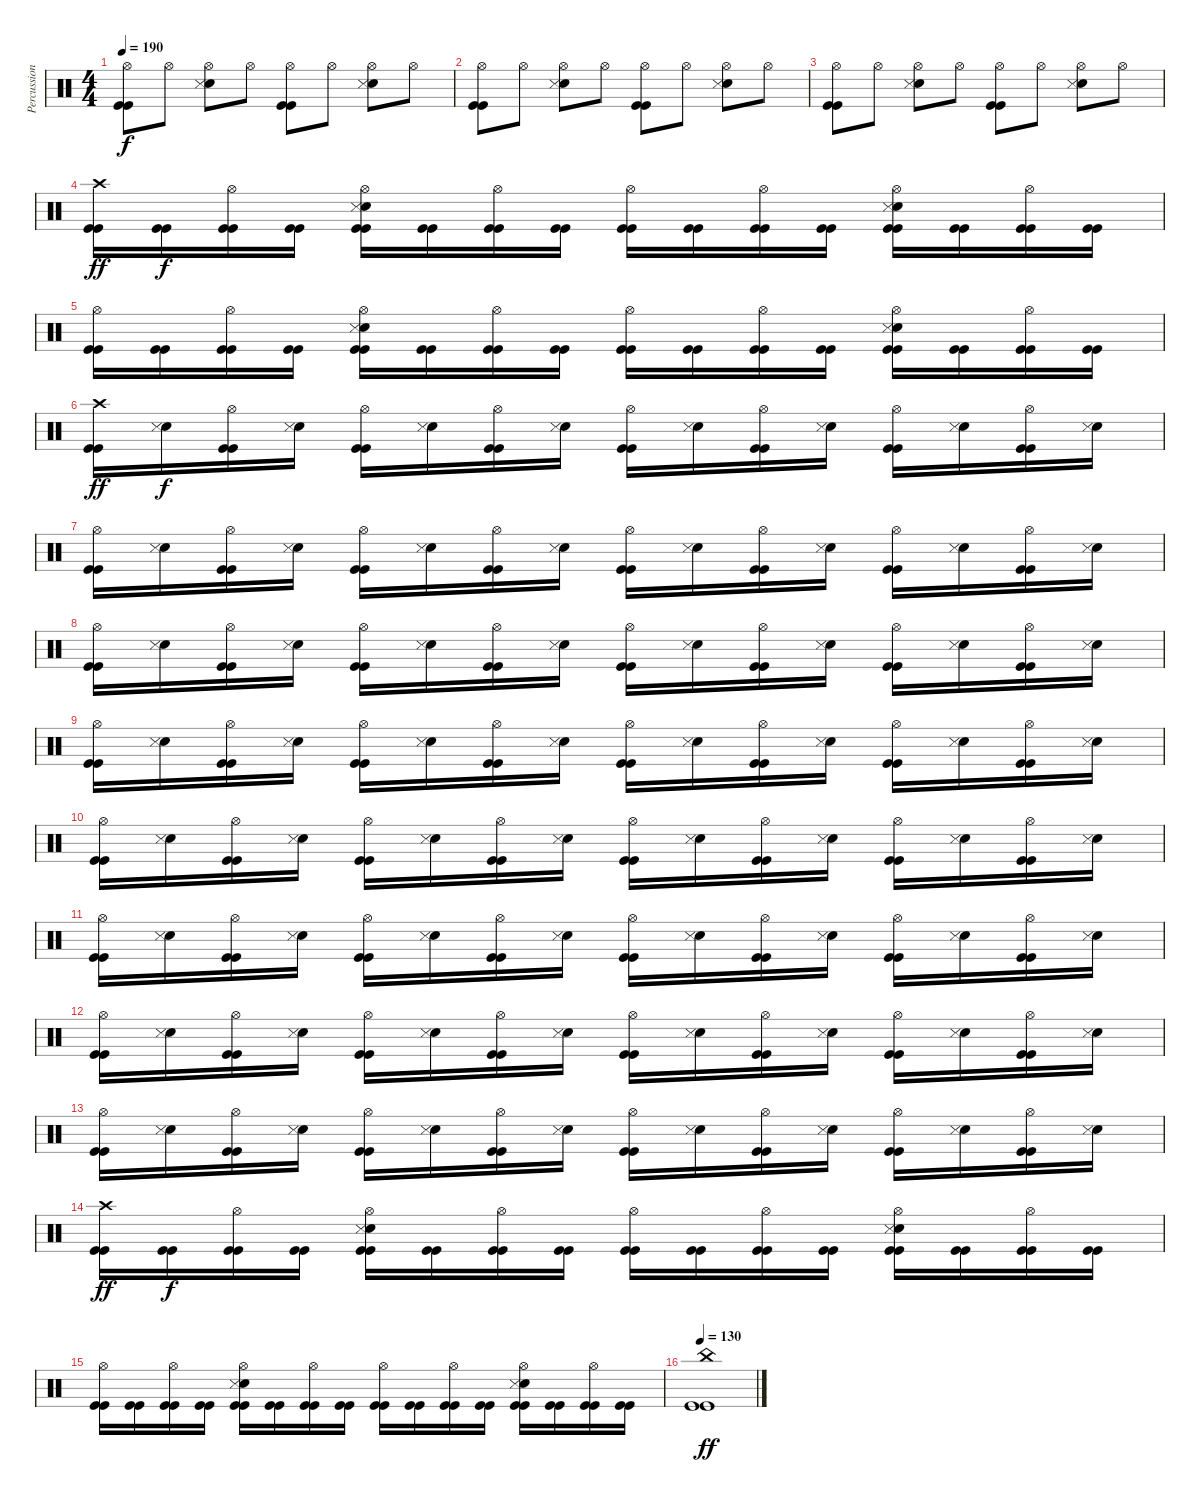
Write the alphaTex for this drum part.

\track ("Percussion" "Percussion") {instrument percussion}
\staff {score}
\articulation defaults
\ts (4 4)
\tempo 190
\clef neutral
\ks c
("Hi-Hat (open)" "Kick (hit)" "Kick (hit)").8{dy f} "Hi-Hat (open)".8 ("Hi-Hat (open)" "Snare (hit) 2" "Snare (side stick) 3").8 "Hi-Hat (open)".8 ("Hi-Hat (open)" "Kick (hit)" "Kick (hit)").8 "Hi-Hat (open)".8 ("Hi-Hat (open)" "Snare (hit) 2" "Snare (side stick) 3").8 "Hi-Hat (open)".8 |
("Hi-Hat (open)" "Kick (hit)" "Kick (hit)").8 "Hi-Hat (open)".8 ("Hi-Hat (open)" "Snare (hit) 2" "Snare (side stick) 3").8 "Hi-Hat (open)".8 ("Hi-Hat (open)" "Kick (hit)" "Kick (hit)").8 "Hi-Hat (open)".8 ("Hi-Hat (open)" "Snare (hit) 2" "Snare (side stick) 3").8 "Hi-Hat (open)".8 |
("Hi-Hat (open)" "Kick (hit)" "Kick (hit)").8 "Hi-Hat (open)".8 ("Hi-Hat (open)" "Snare (hit) 2" "Snare (side stick) 3").8 "Hi-Hat (open)".8 ("Hi-Hat (open)" "Kick (hit)" "Kick (hit)").8 "Hi-Hat (open)".8 ("Hi-Hat (open)" "Snare (hit) 2" "Snare (side stick) 3").8 "Hi-Hat (open)".8 |
("Crash high (hit)" "Kick (hit)" "Kick (hit)").16{dy ff} ("Kick (hit)" "Kick (hit)").16{dy f} ("Hi-Hat (open)" "Kick (hit)" "Kick (hit)").16 ("Kick (hit)" "Kick (hit)").16 ("Snare (hit) 2" "Snare (side stick) 3" "Hi-Hat (open)" "Kick (hit)" "Kick (hit)").16 ("Kick (hit)" "Kick (hit)").16 ("Hi-Hat (open)" "Kick (hit)" "Kick (hit)").16 ("Kick (hit)" "Kick (hit)").16 ("Hi-Hat (open)" "Kick (hit)" "Kick (hit)").16 ("Kick (hit)" "Kick (hit)").16 ("Hi-Hat (open)" "Kick (hit)" "Kick (hit)").16 ("Kick (hit)" "Kick (hit)").16 ("Snare (hit) 2" "Snare (side stick) 3" "Hi-Hat (open)" "Kick (hit)" "Kick (hit)").16 ("Kick (hit)" "Kick (hit)").16 ("Hi-Hat (open)" "Kick (hit)" "Kick (hit)").16 ("Kick (hit)" "Kick (hit)").16 |
("Hi-Hat (open)" "Kick (hit)" "Kick (hit)").16 ("Kick (hit)" "Kick (hit)").16 ("Hi-Hat (open)" "Kick (hit)" "Kick (hit)").16 ("Kick (hit)" "Kick (hit)").16 ("Snare (hit) 2" "Snare (side stick) 3" "Hi-Hat (open)" "Kick (hit)" "Kick (hit)").16 ("Kick (hit)" "Kick (hit)").16 ("Hi-Hat (open)" "Kick (hit)" "Kick (hit)").16 ("Kick (hit)" "Kick (hit)").16 ("Hi-Hat (open)" "Kick (hit)" "Kick (hit)").16 ("Kick (hit)" "Kick (hit)").16 ("Hi-Hat (open)" "Kick (hit)" "Kick (hit)").16 ("Kick (hit)" "Kick (hit)").16 ("Snare (hit) 2" "Snare (side stick) 3" "Hi-Hat (open)" "Kick (hit)" "Kick (hit)").16 ("Kick (hit)" "Kick (hit)").16 ("Hi-Hat (open)" "Kick (hit)" "Kick (hit)").16 ("Kick (hit)" "Kick (hit)").16 |
("Crash high (hit)" "Kick (hit)" "Kick (hit)").16{dy ff} ("Snare (hit) 2" "Snare (side stick) 3").16{dy f} ("Hi-Hat (open)" "Kick (hit)" "Kick (hit)").16 ("Snare (hit) 2" "Snare (side stick) 3").16 ("Hi-Hat (open)" "Kick (hit)" "Kick (hit)").16 ("Snare (hit) 2" "Snare (side stick) 3").16 ("Hi-Hat (open)" "Kick (hit)" "Kick (hit)").16 ("Snare (hit) 2" "Snare (side stick) 3").16 ("Hi-Hat (open)" "Kick (hit)" "Kick (hit)").16 ("Snare (hit) 2" "Snare (side stick) 3").16 ("Hi-Hat (open)" "Kick (hit)" "Kick (hit)").16 ("Snare (hit) 2" "Snare (side stick) 3").16 ("Hi-Hat (open)" "Kick (hit)" "Kick (hit)").16 ("Snare (hit) 2" "Snare (side stick) 3").16 ("Hi-Hat (open)" "Kick (hit)" "Kick (hit)").16 ("Snare (hit) 2" "Snare (side stick) 3").16 |
("Hi-Hat (open)" "Kick (hit)" "Kick (hit)").16 ("Snare (hit) 2" "Snare (side stick) 3").16 ("Hi-Hat (open)" "Kick (hit)" "Kick (hit)").16 ("Snare (hit) 2" "Snare (side stick) 3").16 ("Hi-Hat (open)" "Kick (hit)" "Kick (hit)").16 ("Snare (hit) 2" "Snare (side stick) 3").16 ("Hi-Hat (open)" "Kick (hit)" "Kick (hit)").16 ("Snare (hit) 2" "Snare (side stick) 3").16 ("Hi-Hat (open)" "Kick (hit)" "Kick (hit)").16 ("Snare (hit) 2" "Snare (side stick) 3").16 ("Hi-Hat (open)" "Kick (hit)" "Kick (hit)").16 ("Snare (hit) 2" "Snare (side stick) 3").16 ("Hi-Hat (open)" "Kick (hit)" "Kick (hit)").16 ("Snare (hit) 2" "Snare (side stick) 3").16 ("Hi-Hat (open)" "Kick (hit)" "Kick (hit)").16 ("Snare (hit) 2" "Snare (side stick) 3").16 |
("Hi-Hat (open)" "Kick (hit)" "Kick (hit)").16 ("Snare (hit) 2" "Snare (side stick) 3").16 ("Hi-Hat (open)" "Kick (hit)" "Kick (hit)").16 ("Snare (hit) 2" "Snare (side stick) 3").16 ("Hi-Hat (open)" "Kick (hit)" "Kick (hit)").16 ("Snare (hit) 2" "Snare (side stick) 3").16 ("Hi-Hat (open)" "Kick (hit)" "Kick (hit)").16 ("Snare (hit) 2" "Snare (side stick) 3").16 ("Hi-Hat (open)" "Kick (hit)" "Kick (hit)").16 ("Snare (hit) 2" "Snare (side stick) 3").16 ("Hi-Hat (open)" "Kick (hit)" "Kick (hit)").16 ("Snare (hit) 2" "Snare (side stick) 3").16 ("Hi-Hat (open)" "Kick (hit)" "Kick (hit)").16 ("Snare (hit) 2" "Snare (side stick) 3").16 ("Hi-Hat (open)" "Kick (hit)" "Kick (hit)").16 ("Snare (hit) 2" "Snare (side stick) 3").16 |
("Hi-Hat (open)" "Kick (hit)" "Kick (hit)").16 ("Snare (hit) 2" "Snare (side stick) 3").16 ("Hi-Hat (open)" "Kick (hit)" "Kick (hit)").16 ("Snare (hit) 2" "Snare (side stick) 3").16 ("Hi-Hat (open)" "Kick (hit)" "Kick (hit)").16 ("Snare (hit) 2" "Snare (side stick) 3").16 ("Hi-Hat (open)" "Kick (hit)" "Kick (hit)").16 ("Snare (hit) 2" "Snare (side stick) 3").16 ("Hi-Hat (open)" "Kick (hit)" "Kick (hit)").16 ("Snare (hit) 2" "Snare (side stick) 3").16 ("Hi-Hat (open)" "Kick (hit)" "Kick (hit)").16 ("Snare (hit) 2" "Snare (side stick) 3").16 ("Hi-Hat (open)" "Kick (hit)" "Kick (hit)").16 ("Snare (hit) 2" "Snare (side stick) 3").16 ("Hi-Hat (open)" "Kick (hit)" "Kick (hit)").16 ("Snare (hit) 2" "Snare (side stick) 3").16 |
("Hi-Hat (open)" "Kick (hit)" "Kick (hit)").16 ("Snare (hit) 2" "Snare (side stick) 3").16 ("Hi-Hat (open)" "Kick (hit)" "Kick (hit)").16 ("Snare (hit) 2" "Snare (side stick) 3").16 ("Hi-Hat (open)" "Kick (hit)" "Kick (hit)").16 ("Snare (hit) 2" "Snare (side stick) 3").16 ("Hi-Hat (open)" "Kick (hit)" "Kick (hit)").16 ("Snare (hit) 2" "Snare (side stick) 3").16 ("Hi-Hat (open)" "Kick (hit)" "Kick (hit)").16 ("Snare (hit) 2" "Snare (side stick) 3").16 ("Hi-Hat (open)" "Kick (hit)" "Kick (hit)").16 ("Snare (hit) 2" "Snare (side stick) 3").16 ("Hi-Hat (open)" "Kick (hit)" "Kick (hit)").16 ("Snare (hit) 2" "Snare (side stick) 3").16 ("Hi-Hat (open)" "Kick (hit)" "Kick (hit)").16 ("Snare (hit) 2" "Snare (side stick) 3").16 |
("Hi-Hat (open)" "Kick (hit)" "Kick (hit)").16 ("Snare (hit) 2" "Snare (side stick) 3").16 ("Hi-Hat (open)" "Kick (hit)" "Kick (hit)").16 ("Snare (hit) 2" "Snare (side stick) 3").16 ("Hi-Hat (open)" "Kick (hit)" "Kick (hit)").16 ("Snare (hit) 2" "Snare (side stick) 3").16 ("Hi-Hat (open)" "Kick (hit)" "Kick (hit)").16 ("Snare (hit) 2" "Snare (side stick) 3").16 ("Hi-Hat (open)" "Kick (hit)" "Kick (hit)").16 ("Snare (hit) 2" "Snare (side stick) 3").16 ("Hi-Hat (open)" "Kick (hit)" "Kick (hit)").16 ("Snare (hit) 2" "Snare (side stick) 3").16 ("Hi-Hat (open)" "Kick (hit)" "Kick (hit)").16 ("Snare (hit) 2" "Snare (side stick) 3").16 ("Hi-Hat (open)" "Kick (hit)" "Kick (hit)").16 ("Snare (hit) 2" "Snare (side stick) 3").16 |
("Hi-Hat (open)" "Kick (hit)" "Kick (hit)").16 ("Snare (hit) 2" "Snare (side stick) 3").16 ("Hi-Hat (open)" "Kick (hit)" "Kick (hit)").16 ("Snare (hit) 2" "Snare (side stick) 3").16 ("Hi-Hat (open)" "Kick (hit)" "Kick (hit)").16 ("Snare (hit) 2" "Snare (side stick) 3").16 ("Hi-Hat (open)" "Kick (hit)" "Kick (hit)").16 ("Snare (hit) 2" "Snare (side stick) 3").16 ("Hi-Hat (open)" "Kick (hit)" "Kick (hit)").16 ("Snare (hit) 2" "Snare (side stick) 3").16 ("Hi-Hat (open)" "Kick (hit)" "Kick (hit)").16 ("Snare (hit) 2" "Snare (side stick) 3").16 ("Hi-Hat (open)" "Kick (hit)" "Kick (hit)").16 ("Snare (hit) 2" "Snare (side stick) 3").16 ("Hi-Hat (open)" "Kick (hit)" "Kick (hit)").16 ("Snare (hit) 2" "Snare (side stick) 3").16 |
("Hi-Hat (open)" "Kick (hit)" "Kick (hit)").16 ("Snare (hit) 2" "Snare (side stick) 3").16 ("Hi-Hat (open)" "Kick (hit)" "Kick (hit)").16 ("Snare (hit) 2" "Snare (side stick) 3").16 ("Hi-Hat (open)" "Kick (hit)" "Kick (hit)").16 ("Snare (hit) 2" "Snare (side stick) 3").16 ("Hi-Hat (open)" "Kick (hit)" "Kick (hit)").16 ("Snare (hit) 2" "Snare (side stick) 3").16 ("Hi-Hat (open)" "Kick (hit)" "Kick (hit)").16 ("Snare (hit) 2" "Snare (side stick) 3").16 ("Hi-Hat (open)" "Kick (hit)" "Kick (hit)").16 ("Snare (hit) 2" "Snare (side stick) 3").16 ("Hi-Hat (open)" "Kick (hit)" "Kick (hit)").16 ("Snare (hit) 2" "Snare (side stick) 3").16 ("Hi-Hat (open)" "Kick (hit)" "Kick (hit)").16 ("Snare (hit) 2" "Snare (side stick) 3").16 |
("Crash high (hit)" "Kick (hit)" "Kick (hit)").16{dy ff} ("Kick (hit)" "Kick (hit)").16{dy f} ("Hi-Hat (open)" "Kick (hit)" "Kick (hit)").16 ("Kick (hit)" "Kick (hit)").16 ("Snare (hit) 2" "Snare (side stick) 3" "Hi-Hat (open)" "Kick (hit)" "Kick (hit)").16 ("Kick (hit)" "Kick (hit)").16 ("Hi-Hat (open)" "Kick (hit)" "Kick (hit)").16 ("Kick (hit)" "Kick (hit)").16 ("Hi-Hat (open)" "Kick (hit)" "Kick (hit)").16 ("Kick (hit)" "Kick (hit)").16 ("Hi-Hat (open)" "Kick (hit)" "Kick (hit)").16 ("Kick (hit)" "Kick (hit)").16 ("Snare (hit) 2" "Snare (side stick) 3" "Hi-Hat (open)" "Kick (hit)" "Kick (hit)").16 ("Kick (hit)" "Kick (hit)").16 ("Hi-Hat (open)" "Kick (hit)" "Kick (hit)").16 ("Kick (hit)" "Kick (hit)").16 |
("Hi-Hat (open)" "Kick (hit)" "Kick (hit)").16 ("Kick (hit)" "Kick (hit)").16 ("Hi-Hat (open)" "Kick (hit)" "Kick (hit)").16 ("Kick (hit)" "Kick (hit)").16 ("Snare (hit) 2" "Snare (side stick) 3" "Hi-Hat (open)" "Kick (hit)" "Kick (hit)").16 ("Kick (hit)" "Kick (hit)").16 ("Hi-Hat (open)" "Kick (hit)" "Kick (hit)").16 ("Kick (hit)" "Kick (hit)").16 ("Hi-Hat (open)" "Kick (hit)" "Kick (hit)").16 ("Kick (hit)" "Kick (hit)").16 ("Hi-Hat (open)" "Kick (hit)" "Kick (hit)").16 ("Kick (hit)" "Kick (hit)").16 ("Snare (hit) 2" "Snare (side stick) 3" "Hi-Hat (open)" "Kick (hit)" "Kick (hit)").16 ("Kick (hit)" "Kick (hit)").16 ("Hi-Hat (open)" "Kick (hit)" "Kick (hit)").16 ("Kick (hit)" "Kick (hit)").16 |
\tempo 130
("China (hit)" "Kick (hit)" "Kick (hit)").1{dy ff}
